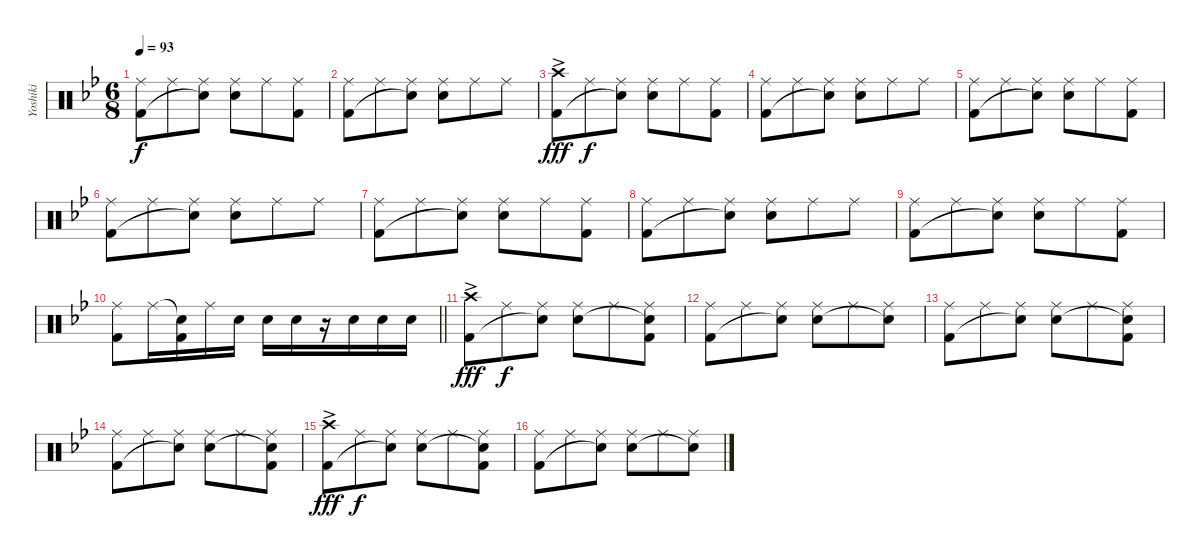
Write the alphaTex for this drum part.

\track ("Yoshiki" "Yoshiki") {instrument percussion}
\staff {score}
\articulation defaults
\ts (6 8)
\tempo 93
\clef neutral
\ks bb
("Ride (middle)" "Kick (hit) 2").8{dy f} "Ride (middle)".8 ("Ride (middle)" "Snare (hit)"{t}).8 ("Ride (middle)" "Snare (hit) 2").8 "Ride (middle)".8 ("Ride (middle)" "Kick (hit) 2").8 |
("Ride (middle)" "Kick (hit) 2").8 "Ride (middle)".8 ("Ride (middle)" "Snare (hit)"{t}).8 ("Ride (middle)" "Snare (hit) 2").8 "Ride (middle)".8 "Ride (middle)".8 |
("Crash high (hit)"{ac} "Kick (hit) 2"{ac}).8{dy fff} "Ride (middle)".8{dy f} ("Ride (middle)" "Snare (hit)"{t}).8 ("Ride (middle)" "Snare (hit) 2").8 "Ride (middle)".8 ("Ride (middle)" "Kick (hit) 2").8 |
("Ride (middle)" "Kick (hit) 2").8 "Ride (middle)".8 ("Ride (middle)" "Snare (hit)"{t}).8 ("Ride (middle)" "Snare (hit) 2").8 "Ride (middle)".8 "Ride (middle)".8 |
("Ride (middle)" "Kick (hit) 2").8 "Ride (middle)".8 ("Ride (middle)" "Snare (hit)"{t}).8 ("Ride (middle)" "Snare (hit) 2").8 "Ride (middle)".8 ("Ride (middle)" "Kick (hit) 2").8 |
("Ride (middle)" "Kick (hit) 2").8 "Ride (middle)".8 ("Ride (middle)" "Snare (hit)"{t}).8 ("Ride (middle)" "Snare (hit) 2").8 "Ride (middle)".8 "Ride (middle)".8 |
("Ride (middle)" "Kick (hit) 2").8 "Ride (middle)".8 ("Ride (middle)" "Snare (hit)"{t}).8 ("Ride (middle)" "Snare (hit) 2").8 "Ride (middle)".8 ("Ride (middle)" "Kick (hit) 2").8 |
("Ride (middle)" "Kick (hit) 2").8 "Ride (middle)".8 ("Ride (middle)" "Snare (hit)"{t}).8 ("Ride (middle)" "Snare (hit) 2").8 "Ride (middle)".8 "Ride (middle)".8 |
("Ride (middle)" "Kick (hit) 2").8 "Ride (middle)".8 ("Ride (middle)" "Snare (hit)"{t}).8 ("Ride (middle)" "Snare (hit) 2").8 "Ride (middle)".8 ("Ride (middle)" "Kick (hit) 2").8 |
\barLineRight lightlight
("Ride (middle)" "Kick (hit) 2").8 "Ride (middle)".16 ("Snare (hit)"{t} "Kick (hit) 2").16 "Ride (middle)".16 "Snare (hit) 2".16 "Snare (hit) 2".16 "Snare (hit) 2".16 r.16 "Snare (hit) 2".16 "Snare (hit) 2".16 "Snare (hit) 2".16 |
("Crash high (hit)"{ac} "Kick (hit) 2"{ac}).8{dy fff} "Ride (middle)".8{dy f} ("Ride (middle)" "Snare (hit)"{t}).8 ("Ride (middle)" "Snare (hit) 2").8 "Ride (middle)".8 ("Ride (middle)" "Snare (hit)"{t} "Kick (hit) 2").8 |
("Ride (middle)" "Kick (hit) 2").8 "Ride (middle)".8 ("Ride (middle)" "Snare (hit)"{t}).8 ("Ride (middle)" "Snare (hit) 2").8 "Ride (middle)".8 ("Ride (middle)" "Snare (hit)"{t}).8 |
("Ride (middle)" "Kick (hit) 2").8 "Ride (middle)".8 ("Ride (middle)" "Snare (hit)"{t}).8 ("Ride (middle)" "Snare (hit) 2").8 "Ride (middle)".8 ("Ride (middle)" "Snare (hit)"{t} "Kick (hit) 2").8 |
("Ride (middle)" "Kick (hit) 2").8 "Ride (middle)".8 ("Ride (middle)" "Snare (hit)"{t}).8 ("Ride (middle)" "Snare (hit) 2").8 "Ride (middle)".8 ("Ride (middle)" "Snare (hit)"{t} "Kick (hit) 2").8 |
("Crash high (hit)"{ac} "Kick (hit) 2"{ac}).8{dy fff} "Ride (middle)".8{dy f} ("Ride (middle)" "Snare (hit)"{t}).8 ("Ride (middle)" "Snare (hit) 2").8 "Ride (middle)".8 ("Ride (middle)" "Snare (hit)"{t} "Kick (hit) 2").8 |
("Ride (middle)" "Kick (hit) 2").8 "Ride (middle)".8 ("Ride (middle)" "Snare (hit)"{t}).8 ("Ride (middle)" "Snare (hit) 2").8 "Ride (middle)".8 ("Ride (middle)" "Snare (hit)"{t}).8
